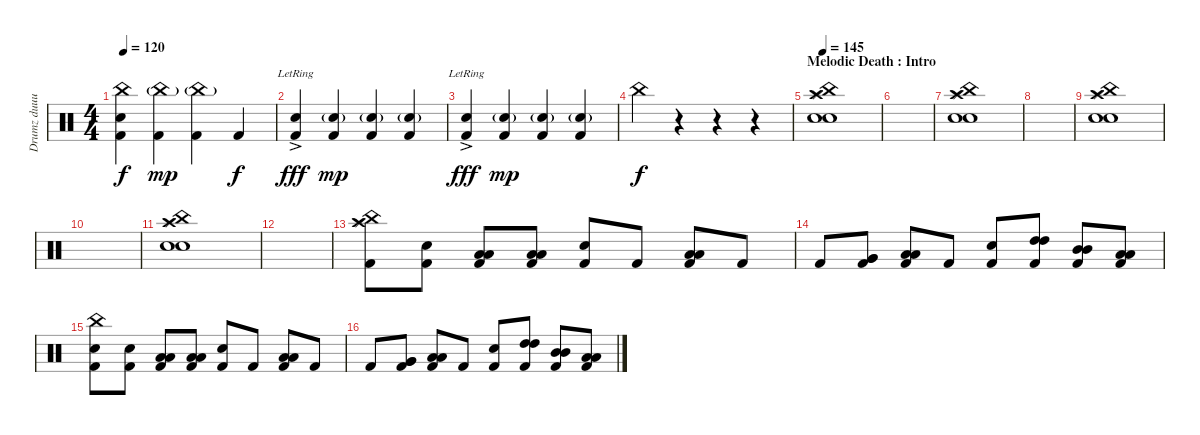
\track ("Drumz duuuuude" "Drumz duuu") {instrument percussion}
\staff {score}
\articulation defaults
\ts (4 4)
\tempo 120
\clef neutral
\ks c
("China (hit)" "Kick (hit) 2" "Electric Snare (hit)").4{dy f volume 13} ("China (hit)"{g} "Kick (hit) 2").4{dy mp} ("China (hit)"{g} "Kick (hit) 2").4 "Kick (hit) 2".4{dy f} |
("Kick (hit) 2" "Snare (hit) 2"{ac lr}).4{dy fff volume 0} ("Kick (hit) 2" "Snare (hit) 2"{g}).4{dy mp} ("Kick (hit) 2" "Snare (hit) 2"{g}).4 ("Kick (hit) 2" "Snare (hit) 2"{g}).4 |
("Kick (hit) 2" "Snare (hit) 2"{ac lr}).4{dy fff volume 13} ("Kick (hit) 2" "Snare (hit) 2"{g}).4{dy mp volume 0} ("Kick (hit) 2" "Snare (hit) 2"{g}).4 ("Kick (hit) 2" "Snare (hit) 2"{g}).4 |
"China (hit)".4{dy f volume 13} r.4 r.4 r.4{volume 0} |
\section ("" "Melodic Death : Intro")
\tempo 145
("Crash high (hit)" "China (hit)" "Splash (hit)" "Snare (hit) 2" "Electric Snare (hit)").1{volume 13} |
|
("Crash high (hit)" "China (hit)" "Splash (hit)" "Snare (hit) 2" "Electric Snare (hit)").1 |
|
("Crash high (hit)" "China (hit)" "Splash (hit)" "Snare (hit) 2" "Electric Snare (hit)").1 |
|
("Crash high (hit)" "China (hit)" "Splash (hit)" "Snare (hit) 2" "Electric Snare (hit)").1 |
|
("China (hit)" "Kick (hit) 2" "Splash (hit)" "Crash high (hit)").8 ("Kick (hit) 2" "Electric Snare (hit)").8 ("Kick (hit) 2" "Low Tom (hit)" "Low Tom (hit)").8 ("Kick (hit) 2" "Low Tom (hit)" "Low Tom (hit)").8 ("Kick (hit) 2" "Snare (hit) 2").8 "Kick (hit) 2".8 ("Kick (hit) 2" "Low Tom (hit)" "Low Tom (hit)").8 "Kick (hit) 2".8 |
"Kick (hit) 2".8 ("Kick (hit) 2" "Very Low Tom (hit)" "Very Low Tom (hit)").8 ("Kick (hit) 2" "Low Floor Tom (hit)" "Low Floor Tom (hit)").8 "Kick (hit) 2".8 ("Kick (hit) 2" "Snare (hit) 2").8 ("Kick (hit) 2" "High Tom (hit)" "High Tom (hit)").8 ("Kick (hit) 2" "Mid Tom (hit)" "Mid Tom (hit)").8 ("Kick (hit) 2" "Low Tom (hit)" "Low Tom (hit)").8 |
("China (hit)" "Kick (hit) 2" "Electric Snare (hit)").8 ("Kick (hit) 2" "Electric Snare (hit)").8 ("Kick (hit) 2" "Low Tom (hit)" "Low Tom (hit)").8 ("Kick (hit) 2" "Low Tom (hit)" "Low Tom (hit)").8 ("Kick (hit) 2" "Snare (hit) 2").8 "Kick (hit) 2".8 ("Kick (hit) 2" "Low Tom (hit)" "Low Tom (hit)").8 "Kick (hit) 2".8 |
"Kick (hit) 2".8 ("Kick (hit) 2" "Very Low Tom (hit)" "Very Low Tom (hit)").8 ("Kick (hit) 2" "Low Floor Tom (hit)" "Low Floor Tom (hit)").8 "Kick (hit) 2".8 ("Kick (hit) 2" "Snare (hit) 2").8 ("Kick (hit) 2" "High Tom (hit)" "High Tom (hit)").8 ("Kick (hit) 2" "Mid Tom (hit)" "Mid Tom (hit)").8 ("Kick (hit) 2" "Low Tom (hit)" "Low Tom (hit)").8
